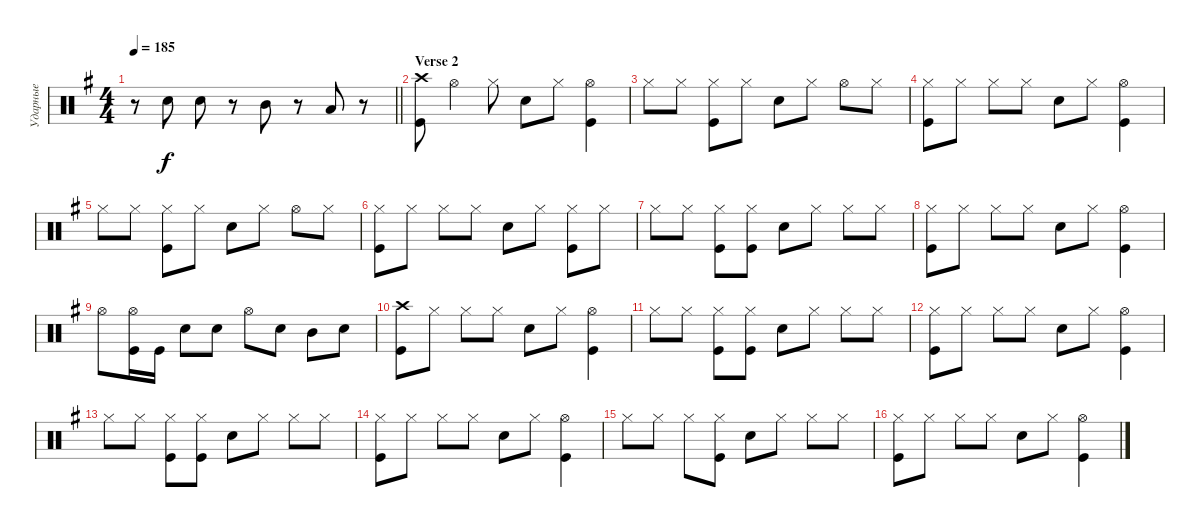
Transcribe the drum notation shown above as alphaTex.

\track ("Ударные" "Ударные") {instrument percussion}
\staff {score}
\articulation defaults
\ts (4 4)
\tempo 185
\clef neutral
\barLineRight lightlight
\ks eminor
r.8{dy f} "Snare (hit) 2".8 "Snare (hit) 2".8 r.8 "Mid Tom (hit)".8 r.8 "Low Tom (hit)".8 r.8 |
\section ("" "Verse 2")
("Kick (hit)" "Crash high (hit)").8 "Hi-Hat (open)".4 "Hi-Hat (closed)".8 "Snare (hit) 2".8 "Hi-Hat (closed)".8 ("Hi-Hat (open)" "Kick (hit)").4 |
"Hi-Hat (closed)".8 "Hi-Hat (closed)".8 ("Hi-Hat (closed)" "Kick (hit)").8 "Hi-Hat (closed)".8 "Snare (hit) 2".8 "Hi-Hat (closed)".8 "Hi-Hat (open)".8 "Hi-Hat (closed)".8 |
("Kick (hit)" "Hi-Hat (closed)").8 "Hi-Hat (closed)".8 "Hi-Hat (closed)".8 "Hi-Hat (closed)".8 "Snare (hit) 2".8 "Hi-Hat (closed)".8 ("Hi-Hat (open)" "Kick (hit)").4 |
"Hi-Hat (closed)".8 "Hi-Hat (closed)".8 ("Hi-Hat (closed)" "Kick (hit)").8 "Hi-Hat (closed)".8 "Snare (hit) 2".8 "Hi-Hat (closed)".8 "Hi-Hat (open)".8 "Hi-Hat (closed)".8 |
("Kick (hit)" "Hi-Hat (closed)").8 "Hi-Hat (closed)".8 "Hi-Hat (closed)".8 "Hi-Hat (closed)".8 "Snare (hit) 2".8 "Hi-Hat (closed)".8 ("Hi-Hat (closed)" "Kick (hit)").8 "Hi-Hat (closed)".8 |
"Hi-Hat (closed)".8 "Hi-Hat (closed)".8 ("Hi-Hat (closed)" "Kick (hit)").8 ("Hi-Hat (closed)" "Kick (hit)").8 "Snare (hit) 2".8 "Hi-Hat (closed)".8 "Hi-Hat (closed)".8 "Hi-Hat (closed)".8 |
("Kick (hit)" "Hi-Hat (closed)").8 "Hi-Hat (closed)".8 "Hi-Hat (closed)".8 "Hi-Hat (closed)".8 "Snare (hit) 2".8 "Hi-Hat (closed)".8 ("Hi-Hat (open)" "Kick (hit)").4 |
"Hi-Hat (open)".8 ("Hi-Hat (open)" "Kick (hit)").16 "Kick (hit)".16 "Snare (hit) 2".8 "Snare (hit) 2".8 "Hi-Hat (open)".8 "Snare (hit) 2".8 "Mid Tom (hit)".8 "Snare (hit) 2".8 |
("Kick (hit)" "Crash high (hit)").8 "Hi-Hat (closed)".8 "Hi-Hat (closed)".8 "Hi-Hat (closed)".8 "Snare (hit) 2".8 "Hi-Hat (closed)".8 ("Hi-Hat (open)" "Kick (hit)").4 |
"Hi-Hat (closed)".8 "Hi-Hat (closed)".8 ("Hi-Hat (closed)" "Kick (hit)").8 ("Hi-Hat (closed)" "Kick (hit)").8 "Snare (hit) 2".8 "Hi-Hat (closed)".8 "Hi-Hat (closed)".8 "Hi-Hat (closed)".8 |
("Kick (hit)" "Hi-Hat (closed)").8 "Hi-Hat (closed)".8 "Hi-Hat (closed)".8 "Hi-Hat (closed)".8 "Snare (hit) 2".8 "Hi-Hat (closed)".8 ("Hi-Hat (open)" "Kick (hit)").4 |
"Hi-Hat (closed)".8 "Hi-Hat (closed)".8 ("Hi-Hat (closed)" "Kick (hit)").8 ("Hi-Hat (closed)" "Kick (hit)").8 "Snare (hit) 2".8 "Hi-Hat (closed)".8 "Hi-Hat (closed)".8 "Hi-Hat (closed)".8 |
("Kick (hit)" "Hi-Hat (closed)").8 "Hi-Hat (closed)".8 "Hi-Hat (closed)".8 "Hi-Hat (closed)".8 "Snare (hit) 2".8 "Hi-Hat (closed)".8 ("Hi-Hat (open)" "Kick (hit)").4 |
"Hi-Hat (closed)".8 "Hi-Hat (closed)".8 "Hi-Hat (closed)".8 ("Hi-Hat (closed)" "Kick (hit)").8 "Snare (hit) 2".8 "Hi-Hat (closed)".8 "Hi-Hat (closed)".8 "Hi-Hat (closed)".8 |
("Kick (hit)" "Hi-Hat (closed)").8 "Hi-Hat (closed)".8 "Hi-Hat (closed)".8 "Hi-Hat (closed)".8 "Snare (hit) 2".8 "Hi-Hat (closed)".8 ("Hi-Hat (open)" "Kick (hit)").4
